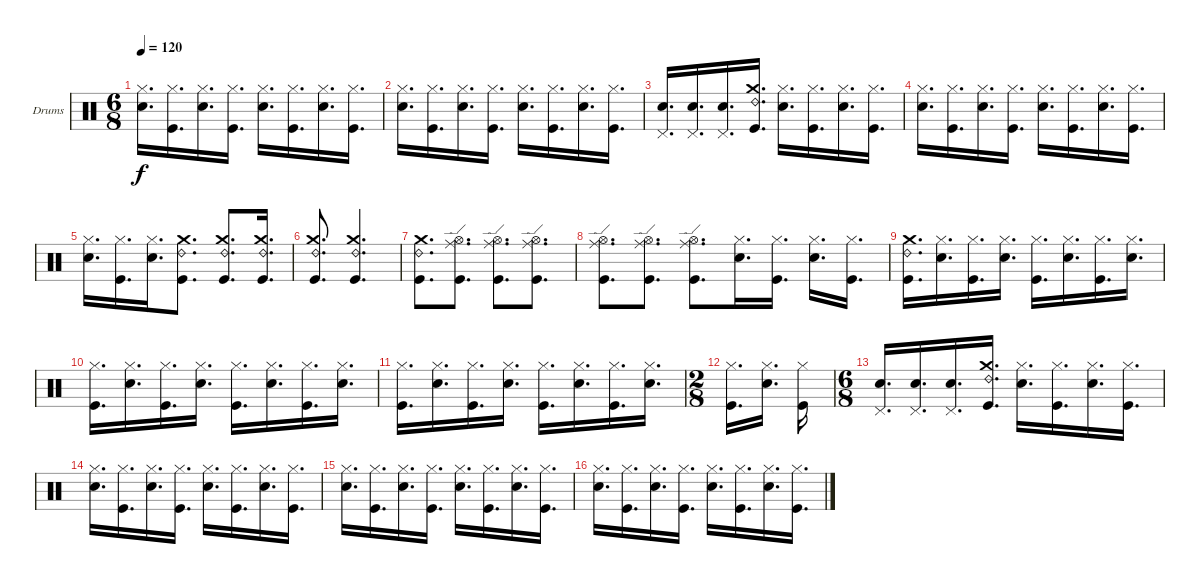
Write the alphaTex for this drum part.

\defaultSystemsLayout 4
\bracketExtendMode groupsimilarinstruments
\firstSystemTrackNameOrientation horizontal
\otherSystemsTrackNameOrientation horizontal
\track ("Drumkit" "Drums") {instrument percussion}
\staff {score}
\articulation defaults
\ts (6 8)
\tempo 120
\clef neutral
\ks c
("Snare (hit) 2" "Hi-Hat (closed)").16{d dy f} ("Kick (hit)" "Hi-Hat (closed)").16{d} ("Snare (hit) 2" "Hi-Hat (closed)").16{d} ("Kick (hit)" "Hi-Hat (closed)").16{d} ("Snare (hit) 2" "Hi-Hat (closed)").16{d} ("Kick (hit)" "Hi-Hat (closed)").16{d} ("Snare (hit) 2" "Hi-Hat (closed)").16{d} ("Kick (hit)" "Hi-Hat (closed)").16{d} |
("Snare (hit) 2" "Hi-Hat (closed)").16{d} ("Kick (hit)" "Hi-Hat (closed)").16{d} ("Snare (hit) 2" "Hi-Hat (closed)").16{d} ("Kick (hit)" "Hi-Hat (closed)").16{d} ("Snare (hit) 2" "Hi-Hat (closed)").16{d} ("Kick (hit)" "Hi-Hat (closed)").16{d} ("Snare (hit) 2" "Hi-Hat (closed)").16{d} ("Kick (hit)" "Hi-Hat (closed)").16{d} |
("Pedal Hi-Hat (hit)" "Snare (hit) 2").16{d} ("Pedal Hi-Hat (hit)" "Snare (hit) 2").16{d} ("Pedal Hi-Hat (hit)" "Snare (hit) 2").16{d} ("Kick (hit)" "Crash medium (hit)" "Ride (bell) 2").16{d} ("Snare (hit) 2" "Hi-Hat (closed)").16{d} ("Kick (hit)" "Hi-Hat (closed)").16{d} ("Snare (hit) 2" "Hi-Hat (closed)").16{d} ("Kick (hit)" "Hi-Hat (closed)").16{d} |
("Snare (hit) 2" "Hi-Hat (closed)").16{d} ("Kick (hit)" "Hi-Hat (closed)").16{d} ("Snare (hit) 2" "Hi-Hat (closed)").16{d} ("Kick (hit)" "Hi-Hat (closed)").16{d} ("Snare (hit) 2" "Hi-Hat (closed)").16{d} ("Kick (hit)" "Hi-Hat (closed)").16{d} ("Snare (hit) 2" "Hi-Hat (closed)").16{d} ("Kick (hit)" "Hi-Hat (closed)").16{d} |
("Snare (hit) 2" "Hi-Hat (closed)").16{d} ("Kick (hit)" "Hi-Hat (closed)").16{d} ("Snare (hit) 2" "Hi-Hat (closed)").16{d} ("Kick (hit)" "Crash medium (hit)" "Ride (bell) 2").8{d} ("Kick (hit)" "Crash medium (hit)" "Ride (bell) 2").8{d} ("Kick (hit)" "Crash medium (hit)" "Ride (bell) 2").16{d} |
("Kick (hit)" "Crash medium (hit)" "Ride (bell) 2").8{d} ("Kick (hit)" "Crash medium (hit)" "Ride (bell) 2").4{d} |
("Kick (hit)" "Crash medium (hit)" "Ride (bell) 2").8{d} ("Kick (hit)" "Hi-Hat (open)" "Ride (edge)").8{d} ("Kick (hit)" "Hi-Hat (open)" "Ride (edge)").8{d} ("Kick (hit)" "Hi-Hat (open)" "Ride (edge)").8{d} |
("Kick (hit)" "Hi-Hat (open)" "Ride (edge)").8{d} ("Kick (hit)" "Hi-Hat (open)" "Ride (edge)").8{d} ("Kick (hit)" "Hi-Hat (open)" "Ride (edge)").8{d} ("Snare (hit) 2" "Hi-Hat (closed)").16{d} ("Kick (hit)" "Hi-Hat (closed)").16{d} ("Snare (hit) 2" "Hi-Hat (closed)").16{d} ("Kick (hit)" "Hi-Hat (closed)").16{d} |
("Kick (hit)" "Crash medium (hit)" "Ride (bell) 2").16{d} ("Snare (hit) 2" "Hi-Hat (closed)").16{d} ("Kick (hit)" "Hi-Hat (closed)").16{d} ("Snare (hit) 2" "Hi-Hat (closed)").16{d} ("Kick (hit)" "Hi-Hat (closed)").16{d} ("Snare (hit) 2" "Hi-Hat (closed)").16{d} ("Kick (hit)" "Hi-Hat (closed)").16{d} ("Snare (hit) 2" "Hi-Hat (closed)").16{d} |
("Kick (hit)" "Hi-Hat (closed)").16{d} ("Snare (hit) 2" "Hi-Hat (closed)").16{d} ("Kick (hit)" "Hi-Hat (closed)").16{d} ("Snare (hit) 2" "Hi-Hat (closed)").16{d} ("Kick (hit)" "Hi-Hat (closed)").16{d} ("Snare (hit) 2" "Hi-Hat (closed)").16{d} ("Kick (hit)" "Hi-Hat (closed)").16{d} ("Snare (hit) 2" "Hi-Hat (closed)").16{d} |
("Kick (hit)" "Hi-Hat (closed)").16{d} ("Snare (hit) 2" "Hi-Hat (closed)").16{d} ("Kick (hit)" "Hi-Hat (closed)").16{d} ("Snare (hit) 2" "Hi-Hat (closed)").16{d} ("Kick (hit)" "Hi-Hat (closed)").16{d} ("Snare (hit) 2" "Hi-Hat (closed)").16{d} ("Kick (hit)" "Hi-Hat (closed)").16{d} ("Snare (hit) 2" "Hi-Hat (closed)").16{d} |
\ts (2 8)
("Kick (hit)" "Hi-Hat (closed)").16{d} ("Snare (hit) 2" "Hi-Hat (closed)").16{d} ("Kick (hit)" "Hi-Hat (closed)").16 |
\ts (6 8)
("Pedal Hi-Hat (hit)" "Snare (hit) 2").16{d} ("Pedal Hi-Hat (hit)" "Snare (hit) 2").16{d} ("Pedal Hi-Hat (hit)" "Snare (hit) 2").16{d} ("Kick (hit)" "Crash medium (hit)" "Ride (bell) 2").16{d} ("Snare (hit) 2" "Hi-Hat (closed)").16{d} ("Kick (hit)" "Hi-Hat (closed)").16{d} ("Snare (hit) 2" "Hi-Hat (closed)").16{d} ("Kick (hit)" "Hi-Hat (closed)").16{d} |
("Snare (hit) 2" "Hi-Hat (closed)").16{d} ("Kick (hit)" "Hi-Hat (closed)").16{d} ("Snare (hit) 2" "Hi-Hat (closed)").16{d} ("Kick (hit)" "Hi-Hat (closed)").16{d} ("Snare (hit) 2" "Hi-Hat (closed)").16{d} ("Kick (hit)" "Hi-Hat (closed)").16{d} ("Snare (hit) 2" "Hi-Hat (closed)").16{d} ("Kick (hit)" "Hi-Hat (closed)").16{d} |
("Snare (hit) 2" "Hi-Hat (closed)").16{d} ("Kick (hit)" "Hi-Hat (closed)").16{d} ("Snare (hit) 2" "Hi-Hat (closed)").16{d} ("Kick (hit)" "Hi-Hat (closed)").16{d} ("Snare (hit) 2" "Hi-Hat (closed)").16{d} ("Kick (hit)" "Hi-Hat (closed)").16{d} ("Snare (hit) 2" "Hi-Hat (closed)").16{d} ("Kick (hit)" "Hi-Hat (closed)").16{d} |
("Snare (hit) 2" "Hi-Hat (closed)").16{d} ("Kick (hit)" "Hi-Hat (closed)").16{d} ("Snare (hit) 2" "Hi-Hat (closed)").16{d} ("Kick (hit)" "Hi-Hat (closed)").16{d} ("Snare (hit) 2" "Hi-Hat (closed)").16{d} ("Kick (hit)" "Hi-Hat (closed)").16{d} ("Snare (hit) 2" "Hi-Hat (closed)").16{d} ("Kick (hit)" "Hi-Hat (closed)").16{d}
